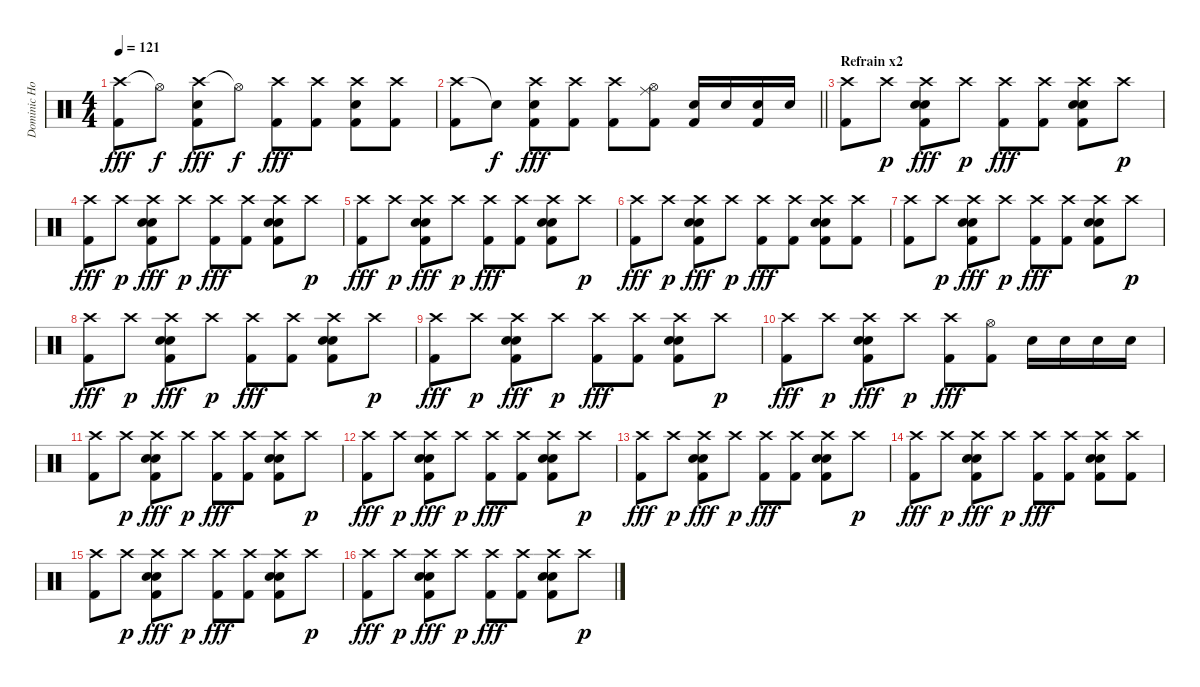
\track ("Dominic Howard" "Dominic Ho") {instrument percussion}
\staff {score}
\articulation defaults
\ts (4 4)
\tempo 121
\clef neutral
\ks c
("Crash high (hit)" "Kick (hit) 2").8{dy fff} "Hi-Hat (open)"{t}.8{dy f} ("Crash high (hit)" "Electric Snare (hit)" "Kick (hit) 2").8{dy fff} "Hi-Hat (open)"{t}.8{dy f} ("Crash high (hit)" "Kick (hit) 2").8{dy fff} ("Crash high (hit)" "Kick (hit) 2").8 ("Crash high (hit)" "Electric Snare (hit)" "Kick (hit) 2").8 ("Crash high (hit)" "Kick (hit) 2").8 |
\barLineRight lightlight
("Crash high (hit)" "Kick (hit) 2").8 "Snare (hit)"{t}.8{dy f} ("Crash high (hit)" "Electric Snare (hit)" "Kick (hit) 2").8{dy fff} ("Crash high (hit)" "Kick (hit) 2").8 ("Crash high (hit)" "Kick (hit) 2").8 ("Hi-Hat (open)" "Ride (middle)" "Kick (hit) 2").8 ("Electric Snare (hit)" "Kick (hit) 2").16 "Electric Snare (hit)".16 ("Electric Snare (hit)" "Kick (hit) 2").16 "Electric Snare (hit)".16 |
\section ("" "Refrain x2")
("Crash high (hit)" "Kick (hit) 2").8 "Crash high (hit)".8{dy p} ("Crash high (hit)" "Electric Snare (hit)" "Electric Snare (hit)" "Kick (hit) 2").8{dy fff} "Crash high (hit)".8{dy p} ("Crash high (hit)" "Kick (hit) 2").8{dy fff} ("Crash high (hit)" "Kick (hit) 2").8 ("Crash high (hit)" "Electric Snare (hit)" "Electric Snare (hit)" "Kick (hit) 2").8 "Crash high (hit)".8{dy p} |
("Crash high (hit)" "Kick (hit) 2").8{dy fff} "Crash high (hit)".8{dy p} ("Crash high (hit)" "Electric Snare (hit)" "Electric Snare (hit)" "Kick (hit) 2").8{dy fff} "Crash high (hit)".8{dy p} ("Crash high (hit)" "Kick (hit) 2").8{dy fff} ("Crash high (hit)" "Kick (hit) 2").8 ("Crash high (hit)" "Electric Snare (hit)" "Electric Snare (hit)" "Kick (hit) 2").8 "Crash high (hit)".8{dy p} |
("Crash high (hit)" "Kick (hit) 2").8{dy fff} "Crash high (hit)".8{dy p} ("Crash high (hit)" "Electric Snare (hit)" "Electric Snare (hit)" "Kick (hit) 2").8{dy fff} "Crash high (hit)".8{dy p} ("Crash high (hit)" "Kick (hit) 2").8{dy fff} ("Crash high (hit)" "Kick (hit) 2").8 ("Crash high (hit)" "Electric Snare (hit)" "Electric Snare (hit)" "Kick (hit) 2").8 "Crash high (hit)".8{dy p} |
("Crash high (hit)" "Kick (hit) 2").8{dy fff} "Crash high (hit)".8{dy p} ("Crash high (hit)" "Electric Snare (hit)" "Electric Snare (hit)" "Kick (hit) 2").8{dy fff} "Crash high (hit)".8{dy p} ("Crash high (hit)" "Kick (hit) 2").8{dy fff} ("Crash high (hit)" "Kick (hit) 2").8 ("Crash high (hit)" "Electric Snare (hit)" "Electric Snare (hit)" "Kick (hit) 2").8 ("Crash high (hit)" "Kick (hit) 2").8 |
("Crash high (hit)" "Kick (hit) 2").8 "Crash high (hit)".8{dy p} ("Crash high (hit)" "Electric Snare (hit)" "Electric Snare (hit)" "Kick (hit) 2").8{dy fff} "Crash high (hit)".8{dy p} ("Crash high (hit)" "Kick (hit) 2").8{dy fff} ("Crash high (hit)" "Kick (hit) 2").8 ("Crash high (hit)" "Electric Snare (hit)" "Electric Snare (hit)" "Kick (hit) 2").8 "Crash high (hit)".8{dy p} |
("Crash high (hit)" "Kick (hit) 2").8{dy fff} "Crash high (hit)".8{dy p} ("Crash high (hit)" "Electric Snare (hit)" "Electric Snare (hit)" "Kick (hit) 2").8{dy fff} "Crash high (hit)".8{dy p} ("Crash high (hit)" "Kick (hit) 2").8{dy fff} ("Crash high (hit)" "Kick (hit) 2").8 ("Crash high (hit)" "Electric Snare (hit)" "Electric Snare (hit)" "Kick (hit) 2").8 "Crash high (hit)".8{dy p} |
("Crash high (hit)" "Kick (hit) 2").8{dy fff} "Crash high (hit)".8{dy p} ("Crash high (hit)" "Electric Snare (hit)" "Electric Snare (hit)" "Kick (hit) 2").8{dy fff} "Crash high (hit)".8{dy p} ("Crash high (hit)" "Kick (hit) 2").8{dy fff} ("Crash high (hit)" "Kick (hit) 2").8 ("Crash high (hit)" "Electric Snare (hit)" "Electric Snare (hit)" "Kick (hit) 2").8 "Crash high (hit)".8{dy p} |
("Crash high (hit)" "Kick (hit) 2").8{dy fff} "Crash high (hit)".8{dy p} ("Crash high (hit)" "Electric Snare (hit)" "Electric Snare (hit)" "Kick (hit) 2").8{dy fff} "Crash high (hit)".8{dy p} ("Crash high (hit)" "Kick (hit) 2").8{dy fff} ("Hi-Hat (open)" "Kick (hit) 2").8 "Electric Snare (hit)".16 "Electric Snare (hit)".16 "Electric Snare (hit)".16 "Electric Snare (hit)".16 |
("Crash high (hit)" "Kick (hit) 2").8 "Crash high (hit)".8{dy p} ("Crash high (hit)" "Electric Snare (hit)" "Electric Snare (hit)" "Kick (hit) 2").8{dy fff} "Crash high (hit)".8{dy p} ("Crash high (hit)" "Kick (hit) 2").8{dy fff} ("Crash high (hit)" "Kick (hit) 2").8 ("Crash high (hit)" "Electric Snare (hit)" "Electric Snare (hit)" "Kick (hit) 2").8 "Crash high (hit)".8{dy p} |
("Crash high (hit)" "Kick (hit) 2").8{dy fff} "Crash high (hit)".8{dy p} ("Crash high (hit)" "Electric Snare (hit)" "Electric Snare (hit)" "Kick (hit) 2").8{dy fff} "Crash high (hit)".8{dy p} ("Crash high (hit)" "Kick (hit) 2").8{dy fff} ("Crash high (hit)" "Kick (hit) 2").8 ("Crash high (hit)" "Electric Snare (hit)" "Electric Snare (hit)" "Kick (hit) 2").8 "Crash high (hit)".8{dy p} |
("Crash high (hit)" "Kick (hit) 2").8{dy fff} "Crash high (hit)".8{dy p} ("Crash high (hit)" "Electric Snare (hit)" "Electric Snare (hit)" "Kick (hit) 2").8{dy fff} "Crash high (hit)".8{dy p} ("Crash high (hit)" "Kick (hit) 2").8{dy fff} ("Crash high (hit)" "Kick (hit) 2").8 ("Crash high (hit)" "Electric Snare (hit)" "Electric Snare (hit)" "Kick (hit) 2").8 "Crash high (hit)".8{dy p} |
("Crash high (hit)" "Kick (hit) 2").8{dy fff} "Crash high (hit)".8{dy p} ("Crash high (hit)" "Electric Snare (hit)" "Electric Snare (hit)" "Kick (hit) 2").8{dy fff} "Crash high (hit)".8{dy p} ("Crash high (hit)" "Kick (hit) 2").8{dy fff} ("Crash high (hit)" "Kick (hit) 2").8 ("Crash high (hit)" "Electric Snare (hit)" "Electric Snare (hit)" "Kick (hit) 2").8 ("Crash high (hit)" "Kick (hit) 2").8 |
("Crash high (hit)" "Kick (hit) 2").8 "Crash high (hit)".8{dy p} ("Crash high (hit)" "Electric Snare (hit)" "Electric Snare (hit)" "Kick (hit) 2").8{dy fff} "Crash high (hit)".8{dy p} ("Crash high (hit)" "Kick (hit) 2").8{dy fff} ("Crash high (hit)" "Kick (hit) 2").8 ("Crash high (hit)" "Electric Snare (hit)" "Electric Snare (hit)" "Kick (hit) 2").8 "Crash high (hit)".8{dy p} |
("Crash high (hit)" "Kick (hit) 2").8{dy fff} "Crash high (hit)".8{dy p} ("Crash high (hit)" "Electric Snare (hit)" "Electric Snare (hit)" "Kick (hit) 2").8{dy fff} "Crash high (hit)".8{dy p} ("Crash high (hit)" "Kick (hit) 2").8{dy fff} ("Crash high (hit)" "Kick (hit) 2").8 ("Crash high (hit)" "Electric Snare (hit)" "Electric Snare (hit)" "Kick (hit) 2").8 "Crash high (hit)".8{dy p}
